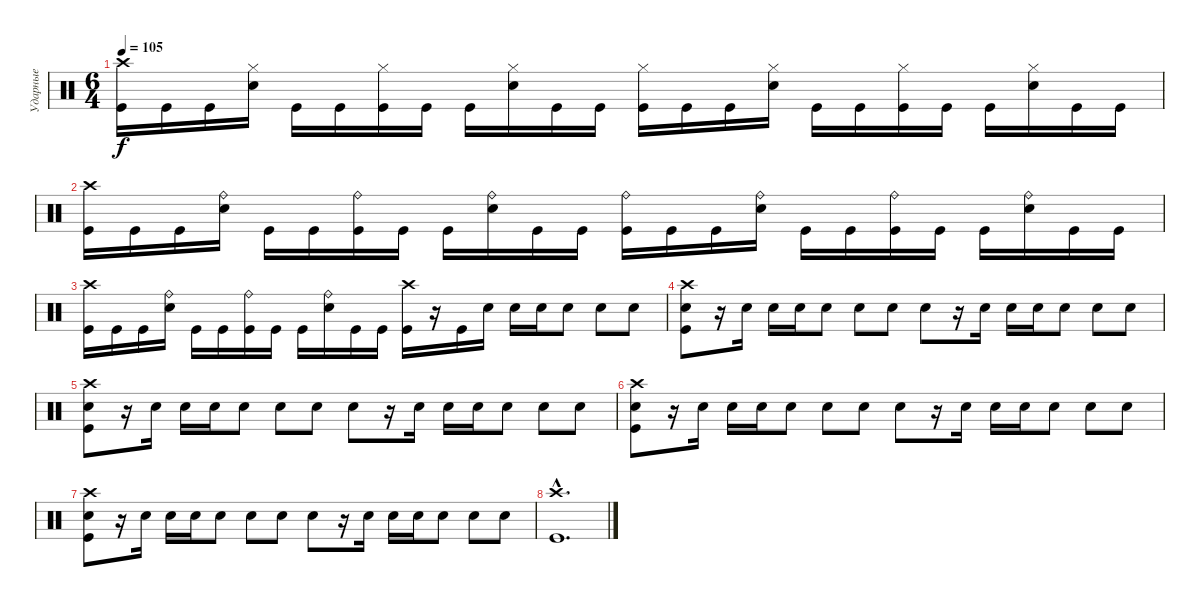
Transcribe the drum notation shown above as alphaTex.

\track ("Ударные" "Ударные") {instrument percussion}
\staff {score}
\articulation defaults
\ts (6 4)
\tempo 105
\clef neutral
\ks c
("Crash high (hit)" "Kick (hit)").16{dy f} "Kick (hit)".16 "Kick (hit)".16 ("Hi-Hat (closed)" "Electric Snare (hit)").16 "Kick (hit)".16 "Kick (hit)".16 ("Hi-Hat (closed)" "Kick (hit)").16 "Kick (hit)".16 "Kick (hit)".16 ("Hi-Hat (closed)" "Electric Snare (hit)").16 "Kick (hit)".16 "Kick (hit)".16 ("Hi-Hat (closed)" "Kick (hit)").16 "Kick (hit)".16 "Kick (hit)".16 ("Hi-Hat (closed)" "Electric Snare (hit)").16 "Kick (hit)".16 "Kick (hit)".16 ("Hi-Hat (closed)" "Kick (hit)").16 "Kick (hit)".16 "Kick (hit)".16 ("Hi-Hat (closed)" "Electric Snare (hit)").16 "Kick (hit)".16 "Kick (hit)".16 |
("Crash high (hit)" "Kick (hit)").16 "Kick (hit)".16 "Kick (hit)".16 ("Ride (bell)" "Electric Snare (hit)").16 "Kick (hit)".16 "Kick (hit)".16 ("Ride (bell)" "Kick (hit)").16 "Kick (hit)".16 "Kick (hit)".16 ("Ride (bell)" "Electric Snare (hit)").16 "Kick (hit)".16 "Kick (hit)".16 ("Ride (bell)" "Kick (hit)").16 "Kick (hit)".16 "Kick (hit)".16 ("Ride (bell)" "Electric Snare (hit)").16 "Kick (hit)".16 "Kick (hit)".16 ("Ride (bell)" "Kick (hit)").16 "Kick (hit)".16 "Kick (hit)".16 ("Ride (bell)" "Electric Snare (hit)").16 "Kick (hit)".16 "Kick (hit)".16 |
("Crash high (hit)" "Kick (hit)").16 "Kick (hit)".16 "Kick (hit)".16 ("Ride (bell)" "Electric Snare (hit)").16 "Kick (hit)".16 "Kick (hit)".16 ("Ride (bell)" "Kick (hit)").16 "Kick (hit)".16 "Kick (hit)".16 ("Ride (bell)" "Electric Snare (hit)").16 "Kick (hit)".16 "Kick (hit)".16 ("Crash high (hit)" "Kick (hit)").16 r.16 "Kick (hit)".16 "Electric Snare (hit)".16 "Electric Snare (hit)".16 "Electric Snare (hit)".16 "Electric Snare (hit)".8 "Electric Snare (hit)".8 "Electric Snare (hit)".8 |
("Crash high (hit)" "Electric Snare (hit)" "Kick (hit)").8 r.16 "Electric Snare (hit)".16 "Electric Snare (hit)".16 "Electric Snare (hit)".16 "Electric Snare (hit)".8 "Electric Snare (hit)".8 "Electric Snare (hit)".8 "Electric Snare (hit)".8 r.16 "Electric Snare (hit)".16 "Electric Snare (hit)".16 "Electric Snare (hit)".16 "Electric Snare (hit)".8 "Electric Snare (hit)".8 "Electric Snare (hit)".8 |
("Crash high (hit)" "Electric Snare (hit)" "Kick (hit)").8 r.16 "Electric Snare (hit)".16 "Electric Snare (hit)".16 "Electric Snare (hit)".16 "Electric Snare (hit)".8 "Electric Snare (hit)".8 "Electric Snare (hit)".8 "Electric Snare (hit)".8 r.16 "Electric Snare (hit)".16 "Electric Snare (hit)".16 "Electric Snare (hit)".16 "Electric Snare (hit)".8 "Electric Snare (hit)".8 "Electric Snare (hit)".8 |
("Crash high (hit)" "Electric Snare (hit)" "Kick (hit)").8 r.16 "Electric Snare (hit)".16 "Electric Snare (hit)".16 "Electric Snare (hit)".16 "Electric Snare (hit)".8 "Electric Snare (hit)".8 "Electric Snare (hit)".8 "Electric Snare (hit)".8 r.16 "Electric Snare (hit)".16 "Electric Snare (hit)".16 "Electric Snare (hit)".16 "Electric Snare (hit)".8 "Electric Snare (hit)".8 "Electric Snare (hit)".8 |
("Crash high (hit)" "Electric Snare (hit)" "Kick (hit)").8 r.16 "Electric Snare (hit)".16 "Electric Snare (hit)".16 "Electric Snare (hit)".16 "Electric Snare (hit)".8 "Electric Snare (hit)".8 "Electric Snare (hit)".8 "Electric Snare (hit)".8 r.16 "Electric Snare (hit)".16 "Electric Snare (hit)".16 "Electric Snare (hit)".16 "Electric Snare (hit)".8 "Electric Snare (hit)".8 "Electric Snare (hit)".8 |
("Crash high (hit)"{hac} "Kick (hit)"{hac}).1{d}
